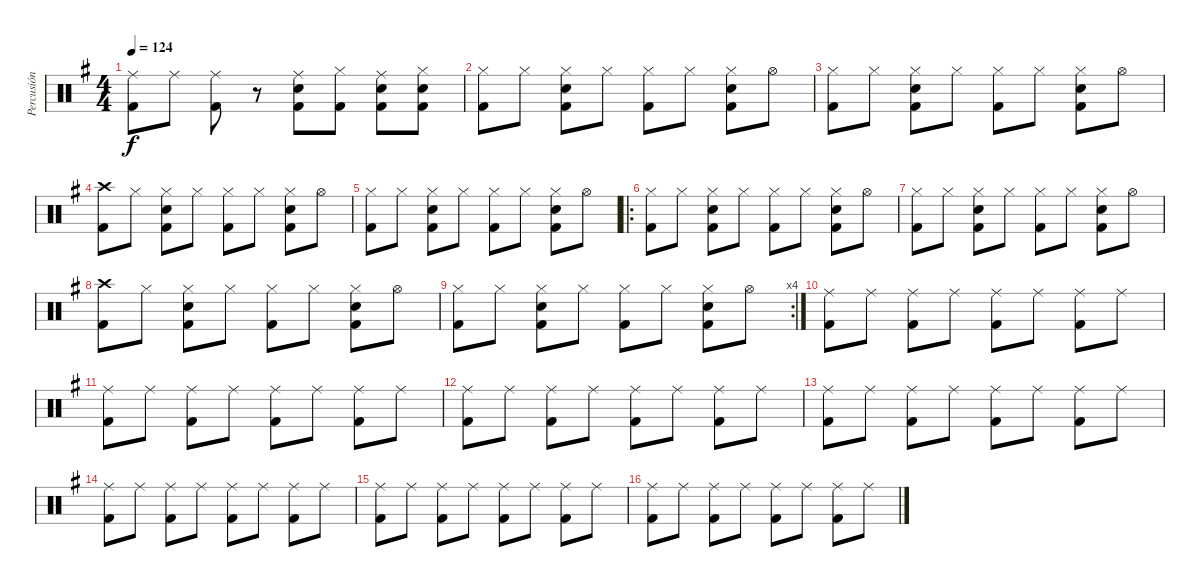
\track ("Percusión" "Percusión") {instrument percussion}
\staff {score}
\articulation defaults
\ts (4 4)
\tempo 124
\clef neutral
\ks g
("Ride (middle)" "Kick (hit) 2").8{dy f} "Ride (middle)".8 ("Ride (middle)" "Kick (hit) 2").8 r.8 ("Ride (middle)" "Electric Snare (hit)" "Kick (hit) 2").8 ("Hi-Hat (closed)" "Kick (hit) 2").8 ("Ride (middle)" "Electric Snare (hit)" "Kick (hit) 2").8 ("Hi-Hat (closed)" "Electric Snare (hit)" "Kick (hit) 2").8 |
("Hi-Hat (closed)" "Kick (hit) 2").8 "Hi-Hat (closed)".8 ("Hi-Hat (closed)" "Electric Snare (hit)" "Kick (hit) 2").8 "Hi-Hat (closed)".8 ("Hi-Hat (closed)" "Kick (hit) 2").8 "Hi-Hat (closed)".8 ("Hi-Hat (closed)" "Electric Snare (hit)" "Kick (hit) 2").8 "Hi-Hat (open)".8 |
("Hi-Hat (closed)" "Kick (hit) 2").8 "Hi-Hat (closed)".8 ("Hi-Hat (closed)" "Electric Snare (hit)" "Kick (hit) 2").8 "Hi-Hat (closed)".8 ("Hi-Hat (closed)" "Kick (hit) 2").8 "Hi-Hat (closed)".8 ("Hi-Hat (closed)" "Electric Snare (hit)" "Kick (hit) 2").8 "Hi-Hat (open)".8 |
("Crash high (hit)" "Kick (hit) 2").8 "Hi-Hat (closed)".8 ("Hi-Hat (closed)" "Electric Snare (hit)" "Kick (hit) 2").8 "Hi-Hat (closed)".8 ("Hi-Hat (closed)" "Kick (hit) 2").8 "Hi-Hat (closed)".8 ("Hi-Hat (closed)" "Electric Snare (hit)" "Kick (hit) 2").8 "Hi-Hat (open)".8 |
("Hi-Hat (closed)" "Kick (hit) 2").8 "Hi-Hat (closed)".8 ("Hi-Hat (closed)" "Electric Snare (hit)" "Kick (hit) 2").8 "Hi-Hat (closed)".8 ("Hi-Hat (closed)" "Kick (hit) 2").8 "Hi-Hat (closed)".8 ("Hi-Hat (closed)" "Electric Snare (hit)" "Kick (hit) 2").8 "Hi-Hat (open)".8 |
\ro
("Hi-Hat (closed)" "Kick (hit) 2").8 "Hi-Hat (closed)".8 ("Hi-Hat (closed)" "Electric Snare (hit)" "Kick (hit) 2").8 "Hi-Hat (closed)".8 ("Hi-Hat (closed)" "Kick (hit) 2").8 "Hi-Hat (closed)".8 ("Hi-Hat (closed)" "Electric Snare (hit)" "Kick (hit) 2").8 "Hi-Hat (open)".8 |
("Hi-Hat (closed)" "Kick (hit) 2").8 "Hi-Hat (closed)".8 ("Hi-Hat (closed)" "Electric Snare (hit)" "Kick (hit) 2").8 "Hi-Hat (closed)".8 ("Hi-Hat (closed)" "Kick (hit) 2").8 "Hi-Hat (closed)".8 ("Hi-Hat (closed)" "Electric Snare (hit)" "Kick (hit) 2").8 "Hi-Hat (open)".8 |
("Crash high (hit)" "Kick (hit) 2").8 "Hi-Hat (closed)".8 ("Hi-Hat (closed)" "Electric Snare (hit)" "Kick (hit) 2").8 "Hi-Hat (closed)".8 ("Hi-Hat (closed)" "Kick (hit) 2").8 "Hi-Hat (closed)".8 ("Hi-Hat (closed)" "Electric Snare (hit)" "Kick (hit) 2").8 "Hi-Hat (open)".8 |
\rc 4
("Hi-Hat (closed)" "Kick (hit) 2").8 "Hi-Hat (closed)".8 ("Hi-Hat (closed)" "Electric Snare (hit)" "Kick (hit) 2").8 "Hi-Hat (closed)".8 ("Hi-Hat (closed)" "Kick (hit) 2").8 "Hi-Hat (closed)".8 ("Hi-Hat (closed)" "Electric Snare (hit)" "Kick (hit) 2").8 "Hi-Hat (open)".8 |
("Ride (middle)" "Kick (hit) 2").8 "Ride (middle)".8 ("Ride (middle)" "Kick (hit) 2").8 "Ride (middle)".8 ("Ride (middle)" "Kick (hit) 2").8 "Ride (middle)".8 ("Ride (middle)" "Kick (hit) 2").8 "Ride (middle)".8 |
("Ride (middle)" "Kick (hit) 2").8 "Ride (middle)".8 ("Ride (middle)" "Kick (hit) 2").8 "Ride (middle)".8 ("Ride (middle)" "Kick (hit) 2").8 "Ride (middle)".8 ("Ride (middle)" "Kick (hit) 2").8 "Ride (middle)".8 |
("Ride (middle)" "Kick (hit) 2").8 "Ride (middle)".8 ("Ride (middle)" "Kick (hit) 2").8 "Ride (middle)".8 ("Ride (middle)" "Kick (hit) 2").8 "Ride (middle)".8 ("Ride (middle)" "Kick (hit) 2").8 "Ride (middle)".8 |
("Ride (middle)" "Kick (hit) 2").8 "Ride (middle)".8 ("Ride (middle)" "Kick (hit) 2").8 "Ride (middle)".8 ("Ride (middle)" "Kick (hit) 2").8 "Ride (middle)".8 ("Ride (middle)" "Kick (hit) 2").8 "Ride (middle)".8 |
("Ride (middle)" "Kick (hit) 2").8 "Ride (middle)".8 ("Ride (middle)" "Kick (hit) 2").8 "Ride (middle)".8 ("Ride (middle)" "Kick (hit) 2").8 "Ride (middle)".8 ("Ride (middle)" "Kick (hit) 2").8 "Ride (middle)".8 |
("Ride (middle)" "Kick (hit) 2").8 "Ride (middle)".8 ("Ride (middle)" "Kick (hit) 2").8 "Ride (middle)".8 ("Ride (middle)" "Kick (hit) 2").8 "Ride (middle)".8 ("Ride (middle)" "Kick (hit) 2").8 "Ride (middle)".8 |
("Ride (middle)" "Kick (hit) 2").8 "Ride (middle)".8 ("Ride (middle)" "Kick (hit) 2").8 "Ride (middle)".8 ("Ride (middle)" "Kick (hit) 2").8 "Ride (middle)".8 ("Ride (middle)" "Kick (hit) 2").8 "Ride (middle)".8
